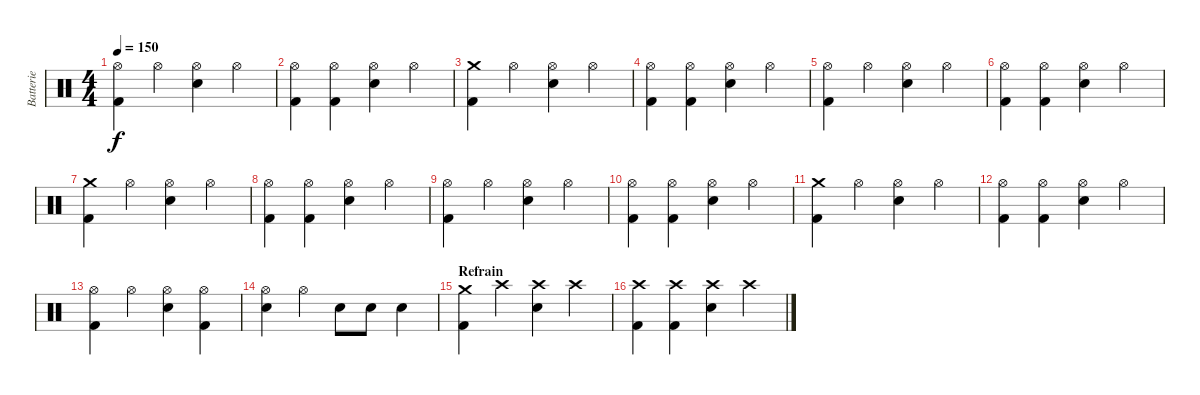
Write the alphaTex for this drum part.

\track ("Batterie" "Batterie") {instrument percussion}
\staff {score}
\articulation defaults
\ts (4 4)
\tempo 150
\clef neutral
\ks c
("Hi-Hat (open)" "Kick (hit) 2").4{dy f} "Hi-Hat (open)".4 ("Hi-Hat (open)" "Electric Snare (hit)").4 "Hi-Hat (open)".4 |
("Hi-Hat (open)" "Kick (hit) 2").4 ("Hi-Hat (open)" "Kick (hit) 2").4 ("Hi-Hat (open)" "Electric Snare (hit)").4 "Hi-Hat (open)".4 |
("Crash medium (hit)" "Kick (hit) 2").4 "Hi-Hat (open)".4 ("Hi-Hat (open)" "Electric Snare (hit)").4 "Hi-Hat (open)".4 |
("Hi-Hat (open)" "Kick (hit) 2").4 ("Hi-Hat (open)" "Kick (hit) 2").4 ("Hi-Hat (open)" "Electric Snare (hit)").4 "Hi-Hat (open)".4 |
("Hi-Hat (open)" "Kick (hit) 2").4 "Hi-Hat (open)".4 ("Hi-Hat (open)" "Electric Snare (hit)").4 "Hi-Hat (open)".4 |
("Hi-Hat (open)" "Kick (hit) 2").4 ("Hi-Hat (open)" "Kick (hit) 2").4 ("Hi-Hat (open)" "Electric Snare (hit)").4 "Hi-Hat (open)".4 |
("Crash medium (hit)" "Kick (hit) 2").4 "Hi-Hat (open)".4 ("Hi-Hat (open)" "Electric Snare (hit)").4 "Hi-Hat (open)".4 |
("Hi-Hat (open)" "Kick (hit) 2").4 ("Hi-Hat (open)" "Kick (hit) 2").4 ("Hi-Hat (open)" "Electric Snare (hit)").4 "Hi-Hat (open)".4 |
("Hi-Hat (open)" "Kick (hit) 2").4 "Hi-Hat (open)".4 ("Hi-Hat (open)" "Electric Snare (hit)").4 "Hi-Hat (open)".4 |
("Hi-Hat (open)" "Kick (hit) 2").4 ("Hi-Hat (open)" "Kick (hit) 2").4 ("Hi-Hat (open)" "Electric Snare (hit)").4 "Hi-Hat (open)".4 |
("Crash medium (hit)" "Kick (hit) 2").4 "Hi-Hat (open)".4 ("Hi-Hat (open)" "Electric Snare (hit)").4 "Hi-Hat (open)".4 |
("Hi-Hat (open)" "Kick (hit) 2").4 ("Hi-Hat (open)" "Kick (hit) 2").4 ("Hi-Hat (open)" "Electric Snare (hit)").4 "Hi-Hat (open)".4 |
("Hi-Hat (open)" "Kick (hit) 2").4 "Hi-Hat (open)".4 ("Hi-Hat (open)" "Electric Snare (hit)").4 ("Hi-Hat (open)" "Kick (hit) 2").4 |
("Hi-Hat (open)" "Electric Snare (hit)").4 "Hi-Hat (open)".4 "Electric Snare (hit)".8 "Electric Snare (hit)".8 "Electric Snare (hit)".4 |
\section ("" "Refrain")
("Crash medium (hit)" "Kick (hit) 2").4 "Crash high (hit)".4 ("Crash high (hit)" "Electric Snare (hit)").4 "Crash high (hit)".4 |
("Crash high (hit)" "Kick (hit) 2").4 ("Crash high (hit)" "Kick (hit) 2").4 ("Crash high (hit)" "Electric Snare (hit)").4 "Crash high (hit)".4
